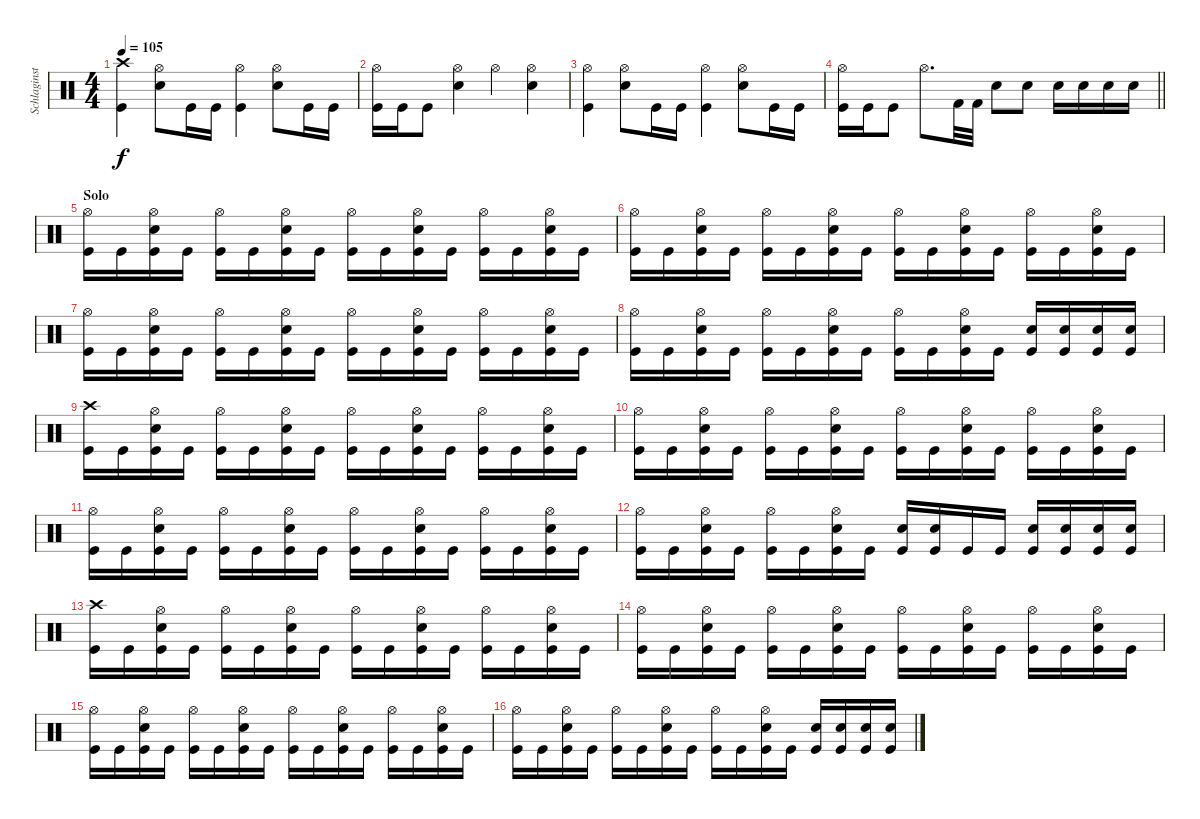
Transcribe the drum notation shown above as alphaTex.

\track ("Schlaginstrumente - Auswahl" "Schlaginst") {instrument percussion}
\staff {score}
\articulation defaults
\ts (4 4)
\tempo 105
\clef neutral
\ks c
("Kick (hit)" "Crash high (hit)").4{dy f} ("Hi-Hat (open)" "Snare (hit) 2").8 "Kick (hit)".16 "Kick (hit)".16 ("Hi-Hat (open)" "Kick (hit)").4 ("Hi-Hat (open)" "Snare (hit) 2").8 "Kick (hit)".16 "Kick (hit)".16 |
("Kick (hit)" "Hi-Hat (open)").16 "Kick (hit)".16 "Kick (hit)".8 ("Hi-Hat (open)" "Snare (hit) 2").4 "Hi-Hat (open)".4 ("Hi-Hat (open)" "Snare (hit) 2").4 |
("Kick (hit)" "Hi-Hat (open)").4 ("Hi-Hat (open)" "Snare (hit) 2").8 "Kick (hit)".16 "Kick (hit)".16 ("Hi-Hat (open)" "Kick (hit)").4 ("Hi-Hat (open)" "Snare (hit) 2").8 "Kick (hit)".16 "Kick (hit)".16 |
\barLineRight lightlight
("Kick (hit)" "Hi-Hat (open)").16 "Kick (hit)".16 "Kick (hit)".8 "Hi-Hat (open)".8{d} "Kick (hit) 2".32 "Kick (hit) 2".32 "Snare (hit) 2".8 "Snare (hit) 2".8 "Snare (hit) 2".16 "Snare (hit) 2".16 "Snare (hit) 2".16 "Snare (hit) 2".16 |
\section ("" "Solo")
("Kick (hit)" "Hi-Hat (open)").16 "Kick (hit)".16 ("Kick (hit)" "Hi-Hat (open)" "Snare (hit) 2").16 "Kick (hit)".16 ("Kick (hit)" "Hi-Hat (open)").16 "Kick (hit)".16 ("Kick (hit)" "Hi-Hat (open)" "Snare (hit) 2").16 "Kick (hit)".16 ("Kick (hit)" "Hi-Hat (open)").16 "Kick (hit)".16 ("Kick (hit)" "Hi-Hat (open)" "Snare (hit) 2").16 "Kick (hit)".16 ("Kick (hit)" "Hi-Hat (open)").16 "Kick (hit)".16 ("Kick (hit)" "Hi-Hat (open)" "Snare (hit) 2").16 "Kick (hit)".16 |
("Kick (hit)" "Hi-Hat (open)").16 "Kick (hit)".16 ("Kick (hit)" "Hi-Hat (open)" "Snare (hit) 2").16 "Kick (hit)".16 ("Kick (hit)" "Hi-Hat (open)").16 "Kick (hit)".16 ("Kick (hit)" "Hi-Hat (open)" "Snare (hit) 2").16 "Kick (hit)".16 ("Kick (hit)" "Hi-Hat (open)").16 "Kick (hit)".16 ("Kick (hit)" "Hi-Hat (open)" "Snare (hit) 2").16 "Kick (hit)".16 ("Kick (hit)" "Hi-Hat (open)").16 "Kick (hit)".16 ("Kick (hit)" "Hi-Hat (open)" "Snare (hit) 2").16 "Kick (hit)".16 |
("Kick (hit)" "Hi-Hat (open)").16 "Kick (hit)".16 ("Kick (hit)" "Hi-Hat (open)" "Snare (hit) 2").16 "Kick (hit)".16 ("Kick (hit)" "Hi-Hat (open)").16 "Kick (hit)".16 ("Kick (hit)" "Hi-Hat (open)" "Snare (hit) 2").16 "Kick (hit)".16 ("Kick (hit)" "Hi-Hat (open)").16 "Kick (hit)".16 ("Kick (hit)" "Hi-Hat (open)" "Snare (hit) 2").16 "Kick (hit)".16 ("Kick (hit)" "Hi-Hat (open)").16 "Kick (hit)".16 ("Kick (hit)" "Hi-Hat (open)" "Snare (hit) 2").16 "Kick (hit)".16 |
("Kick (hit)" "Hi-Hat (open)").16 "Kick (hit)".16 ("Kick (hit)" "Hi-Hat (open)" "Snare (hit) 2").16 "Kick (hit)".16 ("Kick (hit)" "Hi-Hat (open)").16 "Kick (hit)".16 ("Kick (hit)" "Hi-Hat (open)" "Snare (hit) 2").16 "Kick (hit)".16 ("Kick (hit)" "Hi-Hat (open)").16 "Kick (hit)".16 ("Kick (hit)" "Hi-Hat (open)" "Snare (hit) 2").16 "Kick (hit)".16 ("Kick (hit)" "Snare (hit) 2").16 ("Kick (hit)" "Snare (hit) 2").16 ("Kick (hit)" "Snare (hit) 2").16 ("Kick (hit)" "Snare (hit) 2").16 |
("Kick (hit)" "Crash high (hit)").16 "Kick (hit)".16 ("Kick (hit)" "Hi-Hat (open)" "Snare (hit) 2").16 "Kick (hit)".16 ("Kick (hit)" "Hi-Hat (open)").16 "Kick (hit)".16 ("Kick (hit)" "Hi-Hat (open)" "Snare (hit) 2").16 "Kick (hit)".16 ("Kick (hit)" "Hi-Hat (open)").16 "Kick (hit)".16 ("Kick (hit)" "Hi-Hat (open)" "Snare (hit) 2").16 "Kick (hit)".16 ("Kick (hit)" "Hi-Hat (open)").16 "Kick (hit)".16 ("Kick (hit)" "Hi-Hat (open)" "Snare (hit) 2").16 "Kick (hit)".16 |
("Kick (hit)" "Hi-Hat (open)").16 "Kick (hit)".16 ("Kick (hit)" "Hi-Hat (open)" "Snare (hit) 2").16 "Kick (hit)".16 ("Kick (hit)" "Hi-Hat (open)").16 "Kick (hit)".16 ("Kick (hit)" "Hi-Hat (open)" "Snare (hit) 2").16 "Kick (hit)".16 ("Kick (hit)" "Hi-Hat (open)").16 "Kick (hit)".16 ("Kick (hit)" "Hi-Hat (open)" "Snare (hit) 2").16 "Kick (hit)".16 ("Kick (hit)" "Hi-Hat (open)").16 "Kick (hit)".16 ("Kick (hit)" "Hi-Hat (open)" "Snare (hit) 2").16 "Kick (hit)".16 |
("Kick (hit)" "Hi-Hat (open)").16 "Kick (hit)".16 ("Kick (hit)" "Hi-Hat (open)" "Snare (hit) 2").16 "Kick (hit)".16 ("Kick (hit)" "Hi-Hat (open)").16 "Kick (hit)".16 ("Kick (hit)" "Hi-Hat (open)" "Snare (hit) 2").16 "Kick (hit)".16 ("Kick (hit)" "Hi-Hat (open)").16 "Kick (hit)".16 ("Kick (hit)" "Hi-Hat (open)" "Snare (hit) 2").16 "Kick (hit)".16 ("Kick (hit)" "Hi-Hat (open)").16 "Kick (hit)".16 ("Kick (hit)" "Hi-Hat (open)" "Snare (hit) 2").16 "Kick (hit)".16 |
("Kick (hit)" "Hi-Hat (open)").16 "Kick (hit)".16 ("Kick (hit)" "Hi-Hat (open)" "Snare (hit) 2").16 "Kick (hit)".16 ("Kick (hit)" "Hi-Hat (open)").16 "Kick (hit)".16 ("Kick (hit)" "Hi-Hat (open)" "Snare (hit) 2").16 "Kick (hit)".16 ("Kick (hit)" "Snare (hit) 2").16 ("Kick (hit)" "Snare (hit) 2").16 "Kick (hit)".16 "Kick (hit)".16 ("Kick (hit)" "Snare (hit) 2").16 ("Kick (hit)" "Snare (hit) 2").16 ("Kick (hit)" "Snare (hit) 2").16 ("Kick (hit)" "Snare (hit) 2").16 |
("Kick (hit)" "Crash high (hit)").16 "Kick (hit)".16 ("Kick (hit)" "Hi-Hat (open)" "Snare (hit) 2").16 "Kick (hit)".16 ("Kick (hit)" "Hi-Hat (open)").16 "Kick (hit)".16 ("Kick (hit)" "Hi-Hat (open)" "Snare (hit) 2").16 "Kick (hit)".16 ("Kick (hit)" "Hi-Hat (open)").16 "Kick (hit)".16 ("Kick (hit)" "Hi-Hat (open)" "Snare (hit) 2").16 "Kick (hit)".16 ("Kick (hit)" "Hi-Hat (open)").16 "Kick (hit)".16 ("Kick (hit)" "Hi-Hat (open)" "Snare (hit) 2").16 "Kick (hit)".16 |
("Kick (hit)" "Hi-Hat (open)").16 "Kick (hit)".16 ("Kick (hit)" "Hi-Hat (open)" "Snare (hit) 2").16 "Kick (hit)".16 ("Kick (hit)" "Hi-Hat (open)").16 "Kick (hit)".16 ("Kick (hit)" "Hi-Hat (open)" "Snare (hit) 2").16 "Kick (hit)".16 ("Kick (hit)" "Hi-Hat (open)").16 "Kick (hit)".16 ("Kick (hit)" "Hi-Hat (open)" "Snare (hit) 2").16 "Kick (hit)".16 ("Kick (hit)" "Hi-Hat (open)").16 "Kick (hit)".16 ("Kick (hit)" "Hi-Hat (open)" "Snare (hit) 2").16 "Kick (hit)".16 |
("Kick (hit)" "Hi-Hat (open)").16 "Kick (hit)".16 ("Kick (hit)" "Hi-Hat (open)" "Snare (hit) 2").16 "Kick (hit)".16 ("Kick (hit)" "Hi-Hat (open)").16 "Kick (hit)".16 ("Kick (hit)" "Hi-Hat (open)" "Snare (hit) 2").16 "Kick (hit)".16 ("Kick (hit)" "Hi-Hat (open)").16 "Kick (hit)".16 ("Kick (hit)" "Hi-Hat (open)" "Snare (hit) 2").16 "Kick (hit)".16 ("Kick (hit)" "Hi-Hat (open)").16 "Kick (hit)".16 ("Kick (hit)" "Hi-Hat (open)" "Snare (hit) 2").16 "Kick (hit)".16 |
("Kick (hit)" "Hi-Hat (open)").16 "Kick (hit)".16 ("Kick (hit)" "Hi-Hat (open)" "Snare (hit) 2").16 "Kick (hit)".16 ("Kick (hit)" "Hi-Hat (open)").16 "Kick (hit)".16 ("Kick (hit)" "Hi-Hat (open)" "Snare (hit) 2").16 "Kick (hit)".16 ("Kick (hit)" "Hi-Hat (open)").16 "Kick (hit)".16 ("Kick (hit)" "Hi-Hat (open)" "Snare (hit) 2").16 "Kick (hit)".16 ("Kick (hit)" "Snare (hit) 2").16 ("Kick (hit)" "Snare (hit) 2").16 ("Kick (hit)" "Snare (hit) 2").16 ("Kick (hit)" "Snare (hit) 2").16
